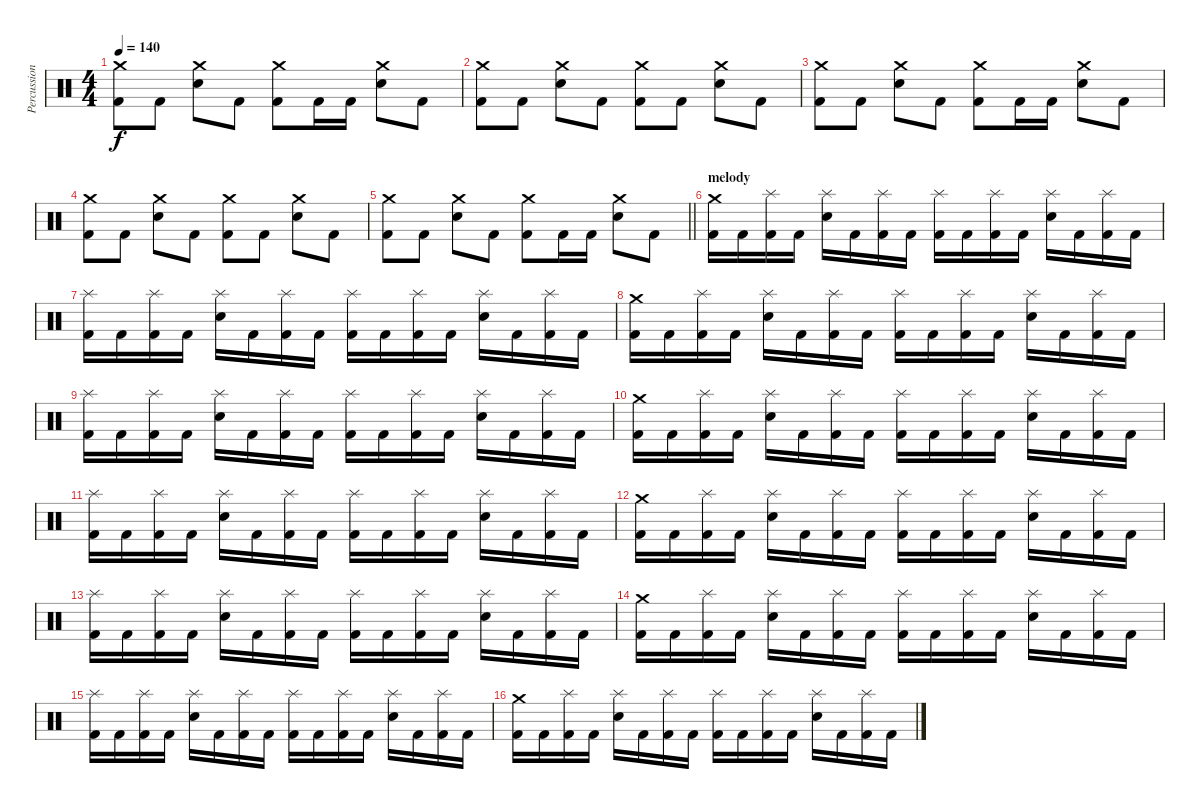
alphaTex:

\track ("Percussion" "Percussion") {instrument percussion}
\staff {score}
\articulation defaults
\ts (4 4)
\tempo 140
\clef neutral
\ks c
("Crash medium (hit)" "Kick (hit) 2").8{dy f} "Kick (hit) 2".8 ("Crash medium (hit)" "Electric Snare (hit)").8 "Kick (hit) 2".8 ("Crash medium (hit)" "Kick (hit) 2").8 "Kick (hit) 2".16 "Kick (hit) 2".16 ("Crash medium (hit)" "Electric Snare (hit)").8 "Kick (hit) 2".8 |
("Crash medium (hit)" "Kick (hit) 2").8 "Kick (hit) 2".8 ("Crash medium (hit)" "Electric Snare (hit)").8 "Kick (hit) 2".8 ("Crash medium (hit)" "Kick (hit) 2").8 "Kick (hit) 2".8 ("Crash medium (hit)" "Electric Snare (hit)").8 "Kick (hit) 2".8 |
("Crash medium (hit)" "Kick (hit) 2").8 "Kick (hit) 2".8 ("Crash medium (hit)" "Electric Snare (hit)").8 "Kick (hit) 2".8 ("Crash medium (hit)" "Kick (hit) 2").8 "Kick (hit) 2".16 "Kick (hit) 2".16 ("Crash medium (hit)" "Electric Snare (hit)").8 "Kick (hit) 2".8 |
("Crash medium (hit)" "Kick (hit) 2").8 "Kick (hit) 2".8 ("Crash medium (hit)" "Electric Snare (hit)").8 "Kick (hit) 2".8 ("Crash medium (hit)" "Kick (hit) 2").8 "Kick (hit) 2".8 ("Crash medium (hit)" "Electric Snare (hit)").8 "Kick (hit) 2".8 |
\barLineRight lightlight
("Crash medium (hit)" "Kick (hit) 2").8 "Kick (hit) 2".8 ("Crash medium (hit)" "Electric Snare (hit)").8 "Kick (hit) 2".8 ("Crash medium (hit)" "Kick (hit) 2").8 "Kick (hit) 2".16 "Kick (hit) 2".16 ("Crash medium (hit)" "Electric Snare (hit)").8 "Kick (hit) 2".8 |
\section ("" "melody")
("Crash medium (hit)" "Kick (hit) 2").16 "Kick (hit) 2".16 ("Splash (hit)" "Kick (hit) 2").16 "Kick (hit) 2".16 ("Splash (hit)" "Electric Snare (hit)").16 "Kick (hit) 2".16 ("Splash (hit)" "Kick (hit) 2").16 "Kick (hit) 2".16 ("Splash (hit)" "Kick (hit) 2").16 "Kick (hit) 2".16 ("Splash (hit)" "Kick (hit) 2").16 "Kick (hit) 2".16 ("Splash (hit)" "Electric Snare (hit)").16 "Kick (hit) 2".16 ("Splash (hit)" "Kick (hit) 2").16 "Kick (hit) 2".16 |
("Splash (hit)" "Kick (hit) 2").16 "Kick (hit) 2".16 ("Splash (hit)" "Kick (hit) 2").16 "Kick (hit) 2".16 ("Splash (hit)" "Electric Snare (hit)").16 "Kick (hit) 2".16 ("Splash (hit)" "Kick (hit) 2").16 "Kick (hit) 2".16 ("Splash (hit)" "Kick (hit) 2").16 "Kick (hit) 2".16 ("Splash (hit)" "Kick (hit) 2").16 "Kick (hit) 2".16 ("Splash (hit)" "Electric Snare (hit)").16 "Kick (hit) 2".16 ("Splash (hit)" "Kick (hit) 2").16 "Kick (hit) 2".16 |
("Crash medium (hit)" "Kick (hit) 2").16 "Kick (hit) 2".16 ("Splash (hit)" "Kick (hit) 2").16 "Kick (hit) 2".16 ("Splash (hit)" "Electric Snare (hit)").16 "Kick (hit) 2".16 ("Splash (hit)" "Kick (hit) 2").16 "Kick (hit) 2".16 ("Splash (hit)" "Kick (hit) 2").16 "Kick (hit) 2".16 ("Splash (hit)" "Kick (hit) 2").16 "Kick (hit) 2".16 ("Splash (hit)" "Electric Snare (hit)").16 "Kick (hit) 2".16 ("Splash (hit)" "Kick (hit) 2").16 "Kick (hit) 2".16 |
("Splash (hit)" "Kick (hit) 2").16 "Kick (hit) 2".16 ("Splash (hit)" "Kick (hit) 2").16 "Kick (hit) 2".16 ("Splash (hit)" "Electric Snare (hit)").16 "Kick (hit) 2".16 ("Splash (hit)" "Kick (hit) 2").16 "Kick (hit) 2".16 ("Splash (hit)" "Kick (hit) 2").16 "Kick (hit) 2".16 ("Splash (hit)" "Kick (hit) 2").16 "Kick (hit) 2".16 ("Splash (hit)" "Electric Snare (hit)").16 "Kick (hit) 2".16 ("Splash (hit)" "Kick (hit) 2").16 "Kick (hit) 2".16 |
("Crash medium (hit)" "Kick (hit) 2").16 "Kick (hit) 2".16 ("Splash (hit)" "Kick (hit) 2").16 "Kick (hit) 2".16 ("Splash (hit)" "Electric Snare (hit)").16 "Kick (hit) 2".16 ("Splash (hit)" "Kick (hit) 2").16 "Kick (hit) 2".16 ("Splash (hit)" "Kick (hit) 2").16 "Kick (hit) 2".16 ("Splash (hit)" "Kick (hit) 2").16 "Kick (hit) 2".16 ("Splash (hit)" "Electric Snare (hit)").16 "Kick (hit) 2".16 ("Splash (hit)" "Kick (hit) 2").16 "Kick (hit) 2".16 |
("Splash (hit)" "Kick (hit) 2").16 "Kick (hit) 2".16 ("Splash (hit)" "Kick (hit) 2").16 "Kick (hit) 2".16 ("Splash (hit)" "Electric Snare (hit)").16 "Kick (hit) 2".16 ("Splash (hit)" "Kick (hit) 2").16 "Kick (hit) 2".16 ("Splash (hit)" "Kick (hit) 2").16 "Kick (hit) 2".16 ("Splash (hit)" "Kick (hit) 2").16 "Kick (hit) 2".16 ("Splash (hit)" "Electric Snare (hit)").16 "Kick (hit) 2".16 ("Splash (hit)" "Kick (hit) 2").16 "Kick (hit) 2".16 |
("Crash medium (hit)" "Kick (hit) 2").16 "Kick (hit) 2".16 ("Splash (hit)" "Kick (hit) 2").16 "Kick (hit) 2".16 ("Splash (hit)" "Electric Snare (hit)").16 "Kick (hit) 2".16 ("Splash (hit)" "Kick (hit) 2").16 "Kick (hit) 2".16 ("Splash (hit)" "Kick (hit) 2").16 "Kick (hit) 2".16 ("Splash (hit)" "Kick (hit) 2").16 "Kick (hit) 2".16 ("Splash (hit)" "Electric Snare (hit)").16 "Kick (hit) 2".16 ("Splash (hit)" "Kick (hit) 2").16 "Kick (hit) 2".16 |
("Splash (hit)" "Kick (hit) 2").16 "Kick (hit) 2".16 ("Splash (hit)" "Kick (hit) 2").16 "Kick (hit) 2".16 ("Splash (hit)" "Electric Snare (hit)").16 "Kick (hit) 2".16 ("Splash (hit)" "Kick (hit) 2").16 "Kick (hit) 2".16 ("Splash (hit)" "Kick (hit) 2").16 "Kick (hit) 2".16 ("Splash (hit)" "Kick (hit) 2").16 "Kick (hit) 2".16 ("Splash (hit)" "Electric Snare (hit)").16 "Kick (hit) 2".16 ("Splash (hit)" "Kick (hit) 2").16 "Kick (hit) 2".16 |
("Crash medium (hit)" "Kick (hit) 2").16 "Kick (hit) 2".16 ("Splash (hit)" "Kick (hit) 2").16 "Kick (hit) 2".16 ("Splash (hit)" "Electric Snare (hit)").16 "Kick (hit) 2".16 ("Splash (hit)" "Kick (hit) 2").16 "Kick (hit) 2".16 ("Splash (hit)" "Kick (hit) 2").16 "Kick (hit) 2".16 ("Splash (hit)" "Kick (hit) 2").16 "Kick (hit) 2".16 ("Splash (hit)" "Electric Snare (hit)").16 "Kick (hit) 2".16 ("Splash (hit)" "Kick (hit) 2").16 "Kick (hit) 2".16 |
("Splash (hit)" "Kick (hit) 2").16 "Kick (hit) 2".16 ("Splash (hit)" "Kick (hit) 2").16 "Kick (hit) 2".16 ("Splash (hit)" "Electric Snare (hit)").16 "Kick (hit) 2".16 ("Splash (hit)" "Kick (hit) 2").16 "Kick (hit) 2".16 ("Splash (hit)" "Kick (hit) 2").16 "Kick (hit) 2".16 ("Splash (hit)" "Kick (hit) 2").16 "Kick (hit) 2".16 ("Splash (hit)" "Electric Snare (hit)").16 "Kick (hit) 2".16 ("Splash (hit)" "Kick (hit) 2").16 "Kick (hit) 2".16 |
("Crash medium (hit)" "Kick (hit) 2").16 "Kick (hit) 2".16 ("Splash (hit)" "Kick (hit) 2").16 "Kick (hit) 2".16 ("Splash (hit)" "Electric Snare (hit)").16 "Kick (hit) 2".16 ("Splash (hit)" "Kick (hit) 2").16 "Kick (hit) 2".16 ("Splash (hit)" "Kick (hit) 2").16 "Kick (hit) 2".16 ("Splash (hit)" "Kick (hit) 2").16 "Kick (hit) 2".16 ("Splash (hit)" "Electric Snare (hit)").16 "Kick (hit) 2".16 ("Splash (hit)" "Kick (hit) 2").16 "Kick (hit) 2".16
